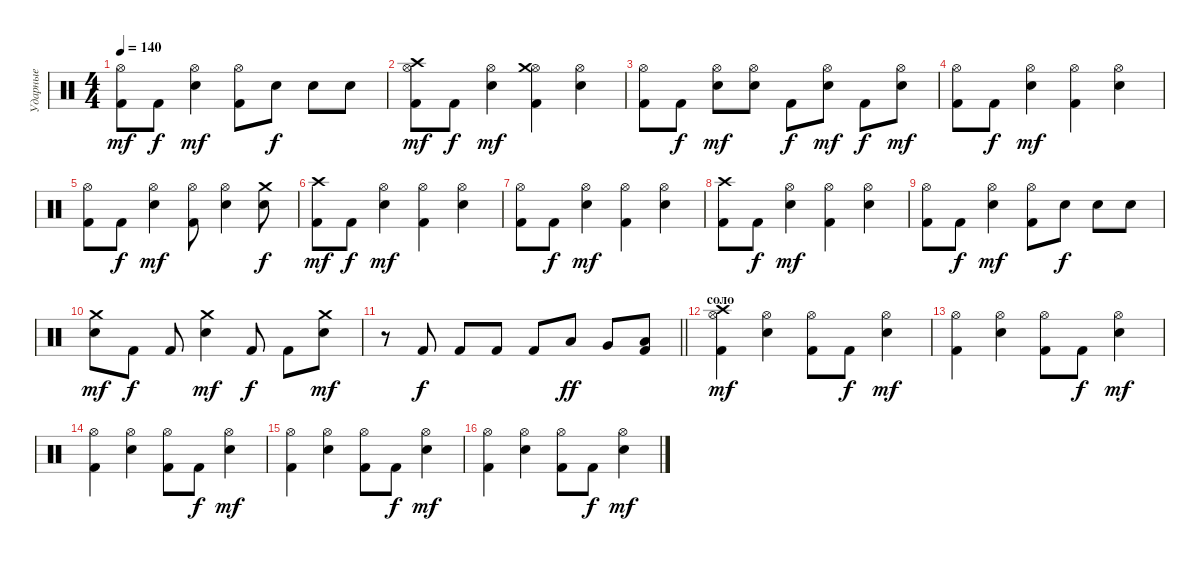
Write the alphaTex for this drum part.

\track ("Ударные" "Ударные") {instrument percussion}
\staff {score}
\articulation defaults
\ts (4 4)
\tempo 140
\clef neutral
\ks c
("Kick (hit) 2" "Hi-Hat (open)").8{dy mf} "Kick (hit) 2".8{dy f} ("Snare (hit) 2" "Hi-Hat (open)").4{dy mf} ("Kick (hit) 2" "Hi-Hat (open)").8 "Snare (hit) 2".8{dy f} "Snare (hit) 2".8 "Snare (hit) 2".8 |
("Kick (hit) 2" "Hi-Hat (open)" "Crash high (hit)").8{dy mf} "Kick (hit) 2".8{dy f} ("Snare (hit) 2" "Hi-Hat (open)").4{dy mf} ("Kick (hit) 2" "Hi-Hat (open)" "Crash medium (hit)").4 ("Snare (hit) 2" "Hi-Hat (open)").4 |
("Kick (hit) 2" "Hi-Hat (open)").8 "Kick (hit) 2".8{dy f} ("Snare (hit) 2" "Hi-Hat (open)").8{dy mf} ("Snare (hit) 2" "Hi-Hat (open)").8 "Kick (hit) 2".8{dy f} ("Snare (hit) 2" "Hi-Hat (open)").8{dy mf} "Kick (hit) 2".8{dy f} ("Snare (hit) 2" "Hi-Hat (open)").8{dy mf} |
("Kick (hit) 2" "Hi-Hat (open)").8 "Kick (hit) 2".8{dy f} ("Snare (hit) 2" "Hi-Hat (open)").4{dy mf} ("Kick (hit) 2" "Hi-Hat (open)").4 ("Snare (hit) 2" "Hi-Hat (open)").4 |
("Kick (hit) 2" "Hi-Hat (open)").8 "Kick (hit) 2".8{dy f} ("Snare (hit) 2" "Hi-Hat (open)").4{dy mf} ("Kick (hit) 2" "Hi-Hat (open)").8 ("Snare (hit) 2" "Hi-Hat (open)").4 ("Snare (hit) 2" "Crash medium (hit)").8{dy f} |
("Kick (hit) 2" "Crash high (hit)").8{dy mf} "Kick (hit) 2".8{dy f} ("Snare (hit) 2" "Hi-Hat (open)").4{dy mf} ("Kick (hit) 2" "Hi-Hat (open)").4 ("Snare (hit) 2" "Hi-Hat (open)").4 |
("Kick (hit) 2" "Hi-Hat (open)").8 "Kick (hit) 2".8{dy f} ("Snare (hit) 2" "Hi-Hat (open)").4{dy mf} ("Kick (hit) 2" "Hi-Hat (open)").4 ("Snare (hit) 2" "Hi-Hat (open)").4 |
("Kick (hit) 2" "Crash high (hit)").8 "Kick (hit) 2".8{dy f} ("Snare (hit) 2" "Hi-Hat (open)").4{dy mf} ("Kick (hit) 2" "Hi-Hat (open)").4 ("Snare (hit) 2" "Hi-Hat (open)").4 |
("Kick (hit) 2" "Hi-Hat (open)").8 "Kick (hit) 2".8{dy f} ("Snare (hit) 2" "Hi-Hat (open)").4{dy mf} ("Kick (hit) 2" "Hi-Hat (open)").8 "Snare (hit) 2".8{dy f} "Snare (hit) 2".8 "Snare (hit) 2".8 |
("Snare (hit) 2" "Crash medium (hit)").8{dy mf} "Kick (hit) 2".8{dy f} "Kick (hit) 2".8 ("Snare (hit) 2" "Crash medium (hit)").4{dy mf} "Kick (hit) 2".8{dy f} "Kick (hit) 2".8 ("Snare (hit) 2" "Crash medium (hit)").8{dy mf} |
\barLineRight lightlight
r.8 "Kick (hit) 2".8{dy f} "Kick (hit) 2".8 "Kick (hit) 2".8 "Kick (hit) 2".8 "Low Floor Tom (hit)".8{dy ff} "Very Low Tom (hit)".8 ("Kick (hit) 2" "Low Floor Tom (hit)").8 |
\section ("" "соло")
("Kick (hit) 2" "Hi-Hat (open)" "Crash high (hit)").4{dy mf} ("Snare (hit) 2" "Hi-Hat (open)").4 ("Kick (hit) 2" "Hi-Hat (open)").8 "Kick (hit) 2".8{dy f} ("Snare (hit) 2" "Hi-Hat (open)").4{dy mf} |
("Kick (hit) 2" "Hi-Hat (open)").4 ("Snare (hit) 2" "Hi-Hat (open)").4 ("Kick (hit) 2" "Hi-Hat (open)").8 "Kick (hit) 2".8{dy f} ("Snare (hit) 2" "Hi-Hat (open)").4{dy mf} |
("Kick (hit) 2" "Hi-Hat (open)").4 ("Snare (hit) 2" "Hi-Hat (open)").4 ("Kick (hit) 2" "Hi-Hat (open)").8 "Kick (hit) 2".8{dy f} ("Snare (hit) 2" "Hi-Hat (open)").4{dy mf} |
("Kick (hit) 2" "Hi-Hat (open)").4 ("Snare (hit) 2" "Hi-Hat (open)").4 ("Kick (hit) 2" "Hi-Hat (open)").8 "Kick (hit) 2".8{dy f} ("Snare (hit) 2" "Hi-Hat (open)").4{dy mf} |
("Kick (hit) 2" "Hi-Hat (open)").4 ("Snare (hit) 2" "Hi-Hat (open)").4 ("Kick (hit) 2" "Hi-Hat (open)").8 "Kick (hit) 2".8{dy f} ("Snare (hit) 2" "Hi-Hat (open)").4{dy mf}
